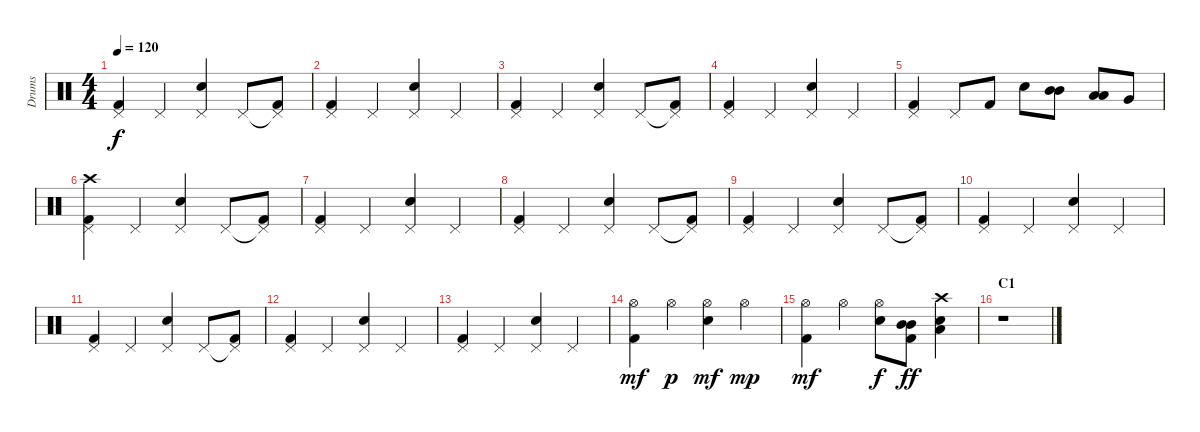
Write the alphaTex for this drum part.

\track ("Drums" "Drums") {instrument percussion}
\staff {score}
\articulation defaults
\ts (4 4)
\tempo 120
\clef neutral
\ks c
("Pedal Hi-Hat (hit)" "Kick (hit) 2").4{dy f} "Pedal Hi-Hat (hit)".4 ("Pedal Hi-Hat (hit)" "Snare (hit) 2").4 "Pedal Hi-Hat (hit)".8 ("Pedal Hi-Hat (hit)"{t} "Kick (hit) 2").8 |
("Pedal Hi-Hat (hit)" "Kick (hit) 2").4 "Pedal Hi-Hat (hit)".4 ("Pedal Hi-Hat (hit)" "Snare (hit) 2").4 "Pedal Hi-Hat (hit)".4 |
("Pedal Hi-Hat (hit)" "Kick (hit) 2").4 "Pedal Hi-Hat (hit)".4 ("Pedal Hi-Hat (hit)" "Snare (hit) 2").4 "Pedal Hi-Hat (hit)".8 ("Pedal Hi-Hat (hit)"{t} "Kick (hit) 2").8 |
("Pedal Hi-Hat (hit)" "Kick (hit) 2").4 "Pedal Hi-Hat (hit)".4 ("Pedal Hi-Hat (hit)" "Snare (hit) 2").4 "Pedal Hi-Hat (hit)".4 |
("Pedal Hi-Hat (hit)" "Kick (hit) 2").4 "Pedal Hi-Hat (hit)".8 "Kick (hit) 2".8 "Snare (hit) 2".8 ("Mid Tom (hit)" "Mid Tom (hit)").8{bd 60} ("Low Tom (hit)" "Low Tom (hit)").8{bd 60} "Very Low Tom (hit)".8 |
("Pedal Hi-Hat (hit)" "Crash high (hit)" "Kick (hit) 2").4 "Pedal Hi-Hat (hit)".4 ("Pedal Hi-Hat (hit)" "Snare (hit) 2").4 "Pedal Hi-Hat (hit)".8 ("Pedal Hi-Hat (hit)"{t} "Kick (hit) 2").8 |
("Pedal Hi-Hat (hit)" "Kick (hit) 2").4 "Pedal Hi-Hat (hit)".4 ("Pedal Hi-Hat (hit)" "Snare (hit) 2").4 "Pedal Hi-Hat (hit)".4 |
("Pedal Hi-Hat (hit)" "Kick (hit) 2").4 "Pedal Hi-Hat (hit)".4 ("Pedal Hi-Hat (hit)" "Snare (hit) 2").4 "Pedal Hi-Hat (hit)".8 ("Pedal Hi-Hat (hit)"{t} "Kick (hit) 2").8 |
("Pedal Hi-Hat (hit)" "Kick (hit) 2").4 "Pedal Hi-Hat (hit)".4 ("Pedal Hi-Hat (hit)" "Snare (hit) 2").4 "Pedal Hi-Hat (hit)".8 ("Pedal Hi-Hat (hit)"{t} "Kick (hit) 2").8 |
("Pedal Hi-Hat (hit)" "Kick (hit) 2").4 "Pedal Hi-Hat (hit)".4 ("Pedal Hi-Hat (hit)" "Snare (hit) 2").4 "Pedal Hi-Hat (hit)".4 |
("Pedal Hi-Hat (hit)" "Kick (hit) 2").4 "Pedal Hi-Hat (hit)".4 ("Pedal Hi-Hat (hit)" "Snare (hit) 2").4 "Pedal Hi-Hat (hit)".8 ("Pedal Hi-Hat (hit)"{t} "Kick (hit) 2").8 |
("Pedal Hi-Hat (hit)" "Kick (hit) 2").4 "Pedal Hi-Hat (hit)".4 ("Pedal Hi-Hat (hit)" "Snare (hit) 2").4 "Pedal Hi-Hat (hit)".4 |
("Pedal Hi-Hat (hit)" "Kick (hit) 2").4 "Pedal Hi-Hat (hit)".4 ("Pedal Hi-Hat (hit)" "Snare (hit) 2").4 "Pedal Hi-Hat (hit)".4 |
("Hi-Hat (open)" "Kick (hit) 2").4{dy mf} "Hi-Hat (open)".4{dy p} ("Hi-Hat (open)" "Snare (hit) 2").4{dy mf} "Hi-Hat (open)".4{dy mp} |
("Hi-Hat (open)" "Kick (hit) 2").4{dy mf} "Hi-Hat (open)".4 ("Hi-Hat (open)" "Snare (hit) 2").8{dy f} ("Mid Tom (hit)" "Mid Tom (hit)" "Kick (hit) 2").8{bd 60 dy ff} ("Low Tom (hit)" "Crash high (hit)" "Snare (hit) 2").4{bd 60} |
\section ("" "C1")
r.1
